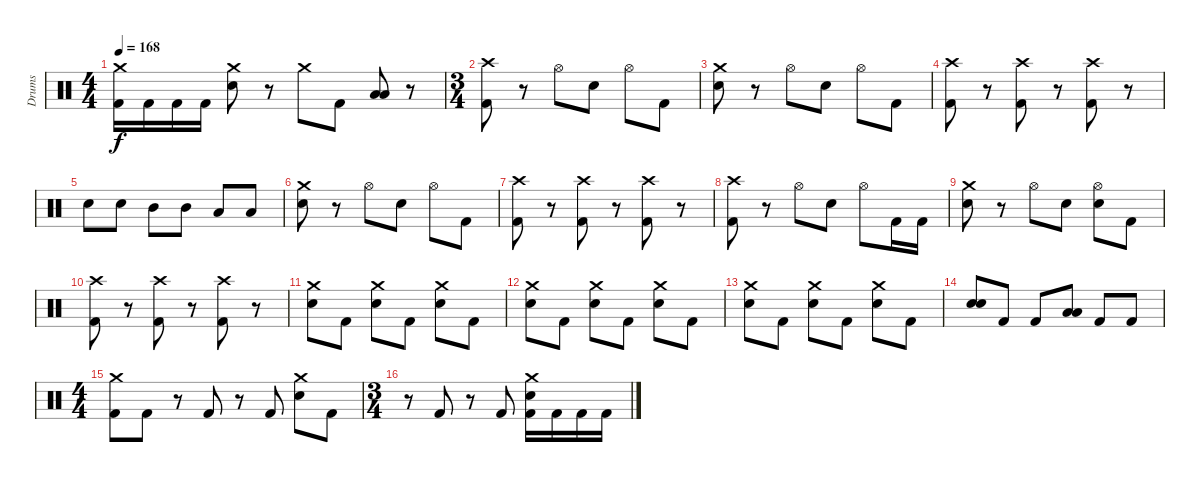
\track ("Drums" "Drums") {instrument percussion}
\staff {score}
\articulation defaults
\ts (4 4)
\tempo 168
\clef neutral
\ks c
("Crash medium (hit)" "Kick (hit) 2").16{dy f} "Kick (hit) 2".16 "Kick (hit) 2".16 "Kick (hit) 2".16 ("Crash medium (hit)" "Electric Snare (hit)").8 r.8 "Crash medium (hit)".8 "Kick (hit) 2".8 ("Low Tom (hit)" "Low Floor Tom (hit)").8 r.8 |
\ts (3 4)
("Crash high (hit)" "Kick (hit) 2").8 r.8 "Hi-Hat (open)".8 "Electric Snare (hit)".8 "Hi-Hat (open)".8 "Kick (hit) 2".8 |
("Crash medium (hit)" "Electric Snare (hit)").8 r.8 "Hi-Hat (open)".8 "Electric Snare (hit)".8 "Hi-Hat (open)".8 "Kick (hit) 2".8 |
("Crash high (hit)" "Kick (hit) 2").8 r.8 ("Crash high (hit)" "Kick (hit) 2").8 r.8 ("Crash high (hit)" "Kick (hit) 2").8 r.8 |
"Electric Snare (hit)".8 "Electric Snare (hit)".8 "Mid Tom (hit)".8 "Mid Tom (hit)".8 "Low Tom (hit)".8 "Low Floor Tom (hit)".8 |
("Crash medium (hit)" "Electric Snare (hit)").8 r.8 "Hi-Hat (open)".8 "Electric Snare (hit)".8 "Hi-Hat (open)".8 "Kick (hit) 2".8 |
("Crash high (hit)" "Kick (hit) 2").8 r.8 ("Crash high (hit)" "Kick (hit) 2").8 r.8 ("Crash high (hit)" "Kick (hit) 2").8 r.8 |
("Crash high (hit)" "Kick (hit) 2").8 r.8 "Hi-Hat (open)".8 "Electric Snare (hit)".8 "Hi-Hat (open)".8 "Kick (hit) 2".16 "Kick (hit) 2".16 |
("Crash medium (hit)" "Electric Snare (hit)").8 r.8 "Hi-Hat (open)".8 "Electric Snare (hit)".8 ("Hi-Hat (open)" "Electric Snare (hit)").8 "Kick (hit) 2".8 |
("Crash high (hit)" "Kick (hit) 2").8 r.8 ("Crash high (hit)" "Kick (hit) 2").8 r.8 ("Crash high (hit)" "Kick (hit) 2").8 r.8 |
("Crash medium (hit)" "Electric Snare (hit)").8 "Kick (hit) 2".8 ("Crash medium (hit)" "Electric Snare (hit)").8 "Kick (hit) 2".8 ("Crash medium (hit)" "Electric Snare (hit)").8 "Kick (hit) 2".8 |
("Crash medium (hit)" "Electric Snare (hit)").8 "Kick (hit) 2".8 ("Crash medium (hit)" "Electric Snare (hit)").8 "Kick (hit) 2".8 ("Crash medium (hit)" "Electric Snare (hit)").8 "Kick (hit) 2".8 |
("Crash medium (hit)" "Electric Snare (hit)").8 "Kick (hit) 2".8 ("Crash medium (hit)" "Electric Snare (hit)").8 "Kick (hit) 2".8 ("Crash medium (hit)" "Electric Snare (hit)").8 "Kick (hit) 2".8 |
("Electric Snare (hit)" "Electric Snare (hit)").8{bu 240} "Kick (hit) 2".8 "Kick (hit) 2".8 ("Low Tom (hit)" "Low Floor Tom (hit)").8 "Kick (hit) 2".8 "Kick (hit) 2".8 |
\ts (4 4)
("Crash medium (hit)" "Kick (hit) 2").8 "Kick (hit) 2".8 r.8 "Kick (hit) 2".8 r.8 "Kick (hit) 2".8 ("Crash medium (hit)" "Electric Snare (hit)").8 "Kick (hit) 2".8 |
\ts (3 4)
r.8 "Kick (hit) 2".8 r.8 "Kick (hit) 2".8 ("Crash medium (hit)" "Electric Snare (hit)" "Kick (hit) 2").16 "Kick (hit) 2".16 "Kick (hit) 2".16 "Kick (hit) 2".16
